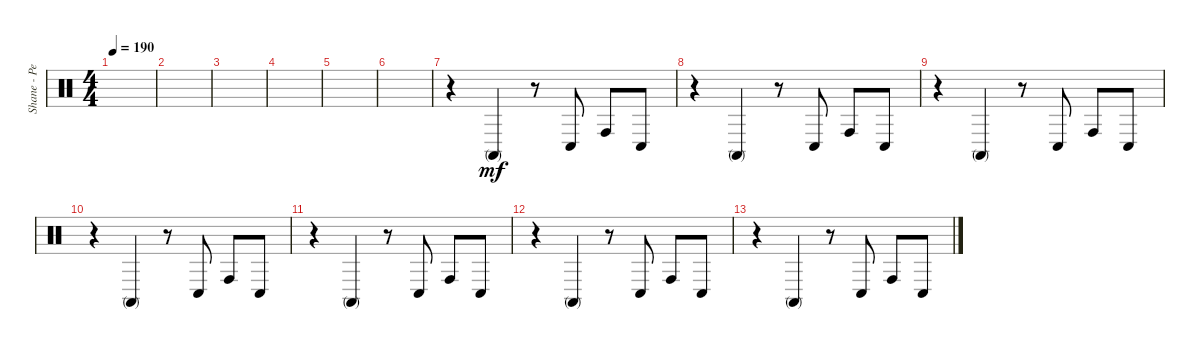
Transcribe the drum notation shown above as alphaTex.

\track ("Shane - Percussion" "Shane - Pe") {instrument percussion}
\staff {score}
\articulation defaults
\ts (4 4)
\tempo 190
\clef neutral
\ks c
|
|
|
|
|
|
r.4 "Conga high (mute)".4{dy mf} r.8 "Conga low (hit)".8 "Conga high (hit)".8 "Conga low (hit)".8 |
r.4 "Conga high (mute)".4 r.8 "Conga low (hit)".8 "Conga high (hit)".8 "Conga low (hit)".8 |
r.4 "Conga high (mute)".4 r.8 "Conga low (hit)".8 "Conga high (hit)".8 "Conga low (hit)".8 |
r.4 "Conga high (mute)".4 r.8 "Conga low (hit)".8 "Conga high (hit)".8 "Conga low (hit)".8 |
r.4 "Conga high (mute)".4 r.8 "Conga low (hit)".8 "Conga high (hit)".8 "Conga low (hit)".8 |
r.4 "Conga high (mute)".4 r.8 "Conga low (hit)".8 "Conga high (hit)".8 "Conga low (hit)".8 |
r.4 "Conga high (mute)".4 r.8 "Conga low (hit)".8 "Conga high (hit)".8 "Conga low (hit)".8
